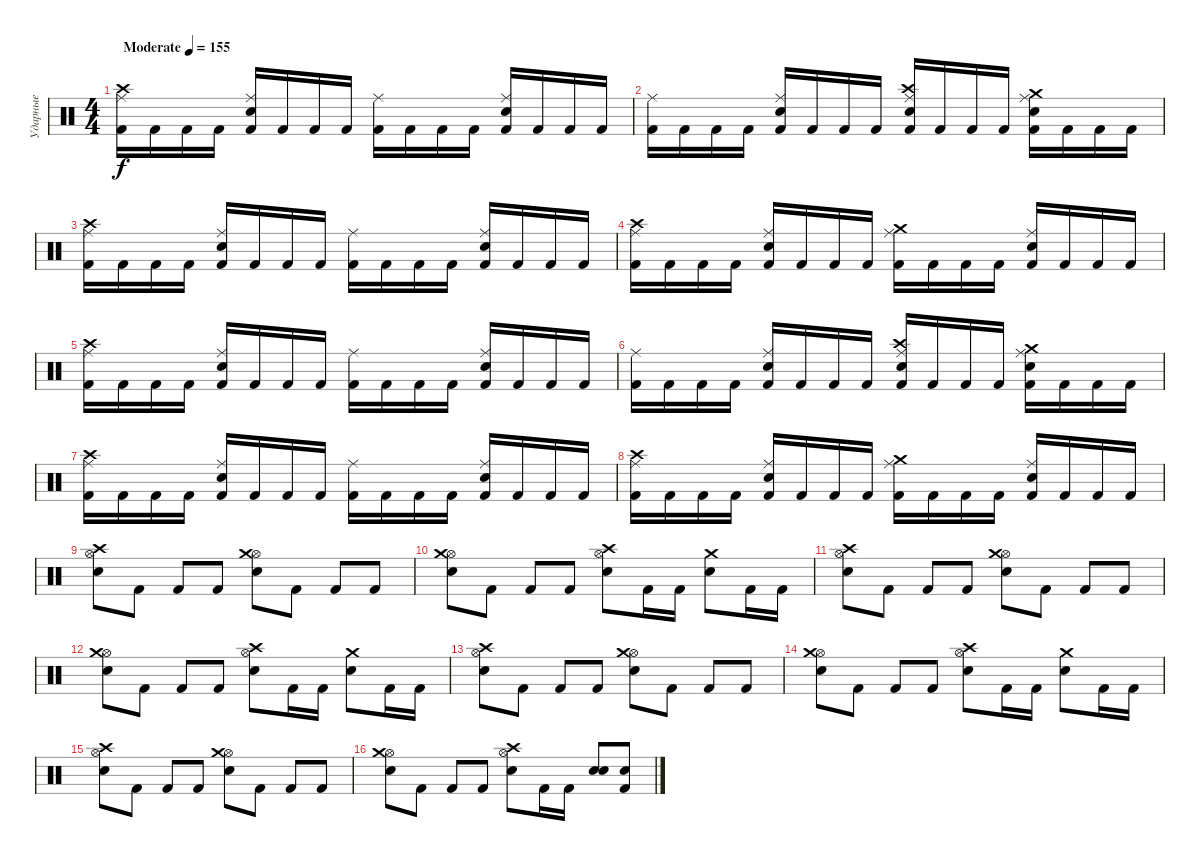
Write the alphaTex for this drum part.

\track ("Ударные" "Ударные") {instrument percussion}
\staff {score}
\articulation defaults
\ts (4 4)
\tempo (155 "Moderate")
\tempo 200
\tempo (155 "Moderate")
\clef neutral
\ks c
("Kick (hit) 2" "Ride (middle)" "Crash high (hit)").16{dy f} "Kick (hit) 2".16 "Kick (hit) 2".16 "Kick (hit) 2".16 ("Kick (hit) 2" "Ride (middle)" "Snare (hit) 2").16 "Kick (hit) 2".16 "Kick (hit) 2".16 "Kick (hit) 2".16 ("Kick (hit) 2" "Ride (middle)").16 "Kick (hit) 2".16 "Kick (hit) 2".16 "Kick (hit) 2".16 ("Kick (hit) 2" "Ride (middle)" "Snare (hit) 2").16 "Kick (hit) 2".16 "Kick (hit) 2".16 "Kick (hit) 2".16 |
("Kick (hit) 2" "Ride (middle)").16 "Kick (hit) 2".16 "Kick (hit) 2".16 "Kick (hit) 2".16 ("Kick (hit) 2" "Ride (middle)" "Snare (hit) 2").16 "Kick (hit) 2".16 "Kick (hit) 2".16 "Kick (hit) 2".16 ("Kick (hit) 2" "Crash high (hit)" "Ride (middle)" "Snare (hit) 2").16 "Kick (hit) 2".16 "Kick (hit) 2".16 "Kick (hit) 2".16 ("Kick (hit) 2" "Crash medium (hit)" "Ride (middle)" "Snare (hit) 2").16 "Kick (hit) 2".16 "Kick (hit) 2".16 "Kick (hit) 2".16 |
("Kick (hit) 2" "Ride (middle)" "Crash high (hit)").16 "Kick (hit) 2".16 "Kick (hit) 2".16 "Kick (hit) 2".16 ("Kick (hit) 2" "Ride (middle)" "Snare (hit) 2").16 "Kick (hit) 2".16 "Kick (hit) 2".16 "Kick (hit) 2".16 ("Kick (hit) 2" "Ride (middle)").16 "Kick (hit) 2".16 "Kick (hit) 2".16 "Kick (hit) 2".16 ("Kick (hit) 2" "Ride (middle)" "Snare (hit) 2").16 "Kick (hit) 2".16 "Kick (hit) 2".16 "Kick (hit) 2".16 |
("Kick (hit) 2" "Crash high (hit)" "Ride (middle)").16 "Kick (hit) 2".16 "Kick (hit) 2".16 "Kick (hit) 2".16 ("Kick (hit) 2" "Ride (middle)" "Snare (hit) 2").16 "Kick (hit) 2".16 "Kick (hit) 2".16 "Kick (hit) 2".16 ("Kick (hit) 2" "Crash medium (hit)" "Ride (middle)").16 "Kick (hit) 2".16 "Kick (hit) 2".16 "Kick (hit) 2".16 ("Kick (hit) 2" "Ride (middle)" "Snare (hit) 2").16 "Kick (hit) 2".16 "Kick (hit) 2".16 "Kick (hit) 2".16 |
("Kick (hit) 2" "Ride (middle)" "Crash high (hit)").16 "Kick (hit) 2".16 "Kick (hit) 2".16 "Kick (hit) 2".16 ("Kick (hit) 2" "Ride (middle)" "Snare (hit) 2").16 "Kick (hit) 2".16 "Kick (hit) 2".16 "Kick (hit) 2".16 ("Kick (hit) 2" "Ride (middle)").16 "Kick (hit) 2".16 "Kick (hit) 2".16 "Kick (hit) 2".16 ("Kick (hit) 2" "Ride (middle)" "Snare (hit) 2").16 "Kick (hit) 2".16 "Kick (hit) 2".16 "Kick (hit) 2".16 |
("Kick (hit) 2" "Ride (middle)").16 "Kick (hit) 2".16 "Kick (hit) 2".16 "Kick (hit) 2".16 ("Kick (hit) 2" "Ride (middle)" "Snare (hit) 2").16 "Kick (hit) 2".16 "Kick (hit) 2".16 "Kick (hit) 2".16 ("Kick (hit) 2" "Crash high (hit)" "Ride (middle)" "Snare (hit) 2").16 "Kick (hit) 2".16 "Kick (hit) 2".16 "Kick (hit) 2".16 ("Kick (hit) 2" "Crash medium (hit)" "Ride (middle)" "Snare (hit) 2").16 "Kick (hit) 2".16 "Kick (hit) 2".16 "Kick (hit) 2".16 |
("Kick (hit) 2" "Ride (middle)" "Crash high (hit)").16 "Kick (hit) 2".16 "Kick (hit) 2".16 "Kick (hit) 2".16 ("Kick (hit) 2" "Ride (middle)" "Snare (hit) 2").16 "Kick (hit) 2".16 "Kick (hit) 2".16 "Kick (hit) 2".16 ("Kick (hit) 2" "Ride (middle)").16 "Kick (hit) 2".16 "Kick (hit) 2".16 "Kick (hit) 2".16 ("Kick (hit) 2" "Ride (middle)" "Snare (hit) 2").16 "Kick (hit) 2".16 "Kick (hit) 2".16 "Kick (hit) 2".16 |
("Kick (hit) 2" "Crash high (hit)" "Ride (middle)").16 "Kick (hit) 2".16 "Kick (hit) 2".16 "Kick (hit) 2".16 ("Kick (hit) 2" "Ride (middle)" "Snare (hit) 2").16 "Kick (hit) 2".16 "Kick (hit) 2".16 "Kick (hit) 2".16 ("Kick (hit) 2" "Crash medium (hit)" "Ride (middle)").16 "Kick (hit) 2".16 "Kick (hit) 2".16 "Kick (hit) 2".16 ("Kick (hit) 2" "Ride (middle)" "Snare (hit) 2").16 "Kick (hit) 2".16 "Kick (hit) 2".16 "Kick (hit) 2".16 |
("Snare (hit) 2" "Hi-Hat (open)" "Crash high (hit)").8 "Kick (hit) 2".8 "Kick (hit) 2".8 "Kick (hit) 2".8 ("Snare (hit) 2" "Hi-Hat (open)" "Crash medium (hit)").8 "Kick (hit) 2".8 "Kick (hit) 2".8 "Kick (hit) 2".8 |
("Snare (hit) 2" "Hi-Hat (open)" "Crash medium (hit)").8 "Kick (hit) 2".8 "Kick (hit) 2".8 "Kick (hit) 2".8 ("Snare (hit) 2" "Hi-Hat (open)" "Crash high (hit)").8 "Kick (hit) 2".16 "Kick (hit) 2".16 ("Snare (hit) 2" "Crash medium (hit)").8 "Kick (hit) 2".16 "Kick (hit) 2".16 |
("Snare (hit) 2" "Hi-Hat (open)" "Crash high (hit)").8 "Kick (hit) 2".8 "Kick (hit) 2".8 "Kick (hit) 2".8 ("Snare (hit) 2" "Hi-Hat (open)" "Crash medium (hit)").8 "Kick (hit) 2".8 "Kick (hit) 2".8 "Kick (hit) 2".8 |
("Snare (hit) 2" "Hi-Hat (open)" "Crash medium (hit)").8 "Kick (hit) 2".8 "Kick (hit) 2".8 "Kick (hit) 2".8 ("Snare (hit) 2" "Hi-Hat (open)" "Crash high (hit)").8 "Kick (hit) 2".16 "Kick (hit) 2".16 ("Snare (hit) 2" "Crash medium (hit)").8 "Kick (hit) 2".16 "Kick (hit) 2".16 |
("Snare (hit) 2" "Hi-Hat (open)" "Crash high (hit)").8 "Kick (hit) 2".8 "Kick (hit) 2".8 "Kick (hit) 2".8 ("Snare (hit) 2" "Hi-Hat (open)" "Crash medium (hit)").8 "Kick (hit) 2".8 "Kick (hit) 2".8 "Kick (hit) 2".8 |
("Snare (hit) 2" "Hi-Hat (open)" "Crash medium (hit)").8 "Kick (hit) 2".8 "Kick (hit) 2".8 "Kick (hit) 2".8 ("Snare (hit) 2" "Hi-Hat (open)" "Crash high (hit)").8 "Kick (hit) 2".16 "Kick (hit) 2".16 ("Snare (hit) 2" "Crash medium (hit)").8 "Kick (hit) 2".16 "Kick (hit) 2".16 |
("Snare (hit) 2" "Hi-Hat (open)" "Crash high (hit)").8 "Kick (hit) 2".8 "Kick (hit) 2".8 "Kick (hit) 2".8 ("Snare (hit) 2" "Hi-Hat (open)" "Crash medium (hit)").8 "Kick (hit) 2".8 "Kick (hit) 2".8 "Kick (hit) 2".8 |
("Snare (hit) 2" "Hi-Hat (open)" "Crash medium (hit)").8 "Kick (hit) 2".8 "Kick (hit) 2".8 "Kick (hit) 2".8 ("Snare (hit) 2" "Hi-Hat (open)" "Crash high (hit)").8 "Kick (hit) 2".16 "Kick (hit) 2".16 ("Snare (hit) 2" "Snare (hit) 2").8 ("Kick (hit) 2" "Snare (hit) 2").8
